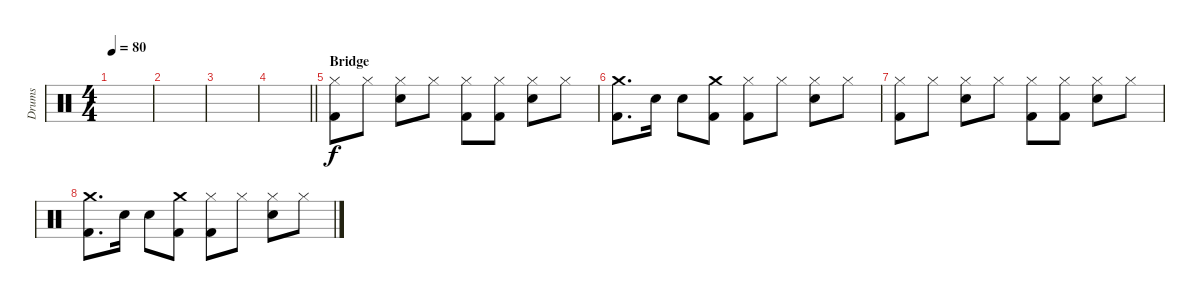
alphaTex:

\track ("Drums" "Drums") {instrument percussion}
\staff {score}
\articulation defaults
\ts (4 4)
\tempo 80
\clef neutral
\ks c
|
|
|
\barLineRight lightlight
|
\section ("" "Bridge")
("Hi-Hat (closed)" "Kick (hit) 2").8 "Hi-Hat (closed)".8 ("Hi-Hat (closed)" "Electric Snare (hit)").8 "Hi-Hat (closed)".8 ("Hi-Hat (closed)" "Kick (hit) 2").8 ("Hi-Hat (closed)" "Kick (hit) 2").8 ("Hi-Hat (closed)" "Electric Snare (hit)").8 "Hi-Hat (closed)".8 |
("Crash medium (hit)" "Kick (hit) 2").8{d} "Electric Snare (hit)".16 "Electric Snare (hit)".8 ("Crash medium (hit)" "Kick (hit) 2").8 ("Hi-Hat (closed)" "Kick (hit) 2").8 "Hi-Hat (closed)".8 ("Hi-Hat (closed)" "Electric Snare (hit)").8 "Hi-Hat (closed)".8 |
("Hi-Hat (closed)" "Kick (hit) 2").8 "Hi-Hat (closed)".8 ("Hi-Hat (closed)" "Electric Snare (hit)").8 "Hi-Hat (closed)".8 ("Hi-Hat (closed)" "Kick (hit) 2").8 ("Hi-Hat (closed)" "Kick (hit) 2").8 ("Hi-Hat (closed)" "Electric Snare (hit)").8 "Hi-Hat (closed)".8 |
("Crash medium (hit)" "Kick (hit) 2").8{d} "Electric Snare (hit)".16 "Electric Snare (hit)".8 ("Crash medium (hit)" "Kick (hit) 2").8 ("Hi-Hat (closed)" "Kick (hit) 2").8 "Hi-Hat (closed)".8 ("Hi-Hat (closed)" "Electric Snare (hit)").8 "Hi-Hat (closed)".8
